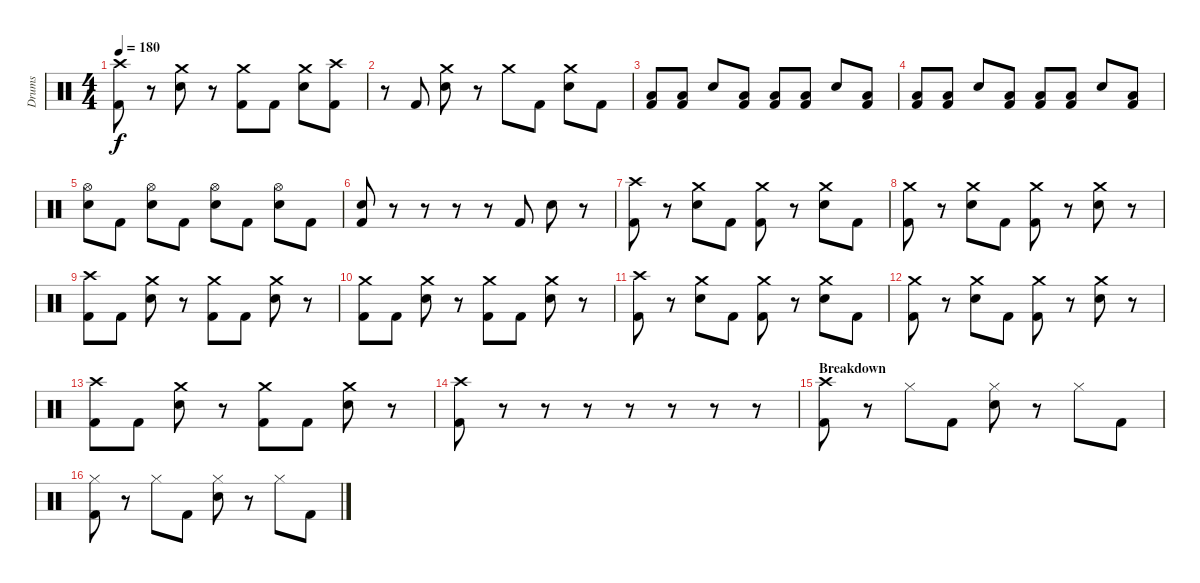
\track ("Drums" "Drums") {instrument percussion}
\staff {score}
\articulation defaults
\ts (4 4)
\tempo 180
\clef neutral
\ks c
("Crash high (hit)" "Kick (hit) 2").8{dy f} r.8 ("Crash medium (hit)" "Electric Snare (hit)").8 r.8 ("Crash medium (hit)" "Kick (hit) 2").8 "Kick (hit) 2".8 ("Crash medium (hit)" "Electric Snare (hit)").8 ("Crash high (hit)" "Kick (hit) 2").8 |
r.8 "Kick (hit) 2".8 ("Crash medium (hit)" "Electric Snare (hit)").8 r.8 "Crash medium (hit)".8 "Kick (hit) 2".8 ("Crash medium (hit)" "Electric Snare (hit)").8 "Kick (hit) 2".8 |
("Low Tom (hit)" "Kick (hit) 2").8 ("Low Tom (hit)" "Kick (hit) 2").8 "Electric Snare (hit)".8 ("Low Tom (hit)" "Kick (hit) 2").8 ("Low Tom (hit)" "Kick (hit) 2").8 ("Low Tom (hit)" "Kick (hit) 2").8 "Electric Snare (hit)".8 ("Low Tom (hit)" "Kick (hit) 2").8 |
("Low Tom (hit)" "Kick (hit) 2").8 ("Low Tom (hit)" "Kick (hit) 2").8 "Electric Snare (hit)".8 ("Low Tom (hit)" "Kick (hit) 2").8 ("Low Tom (hit)" "Kick (hit) 2").8 ("Low Tom (hit)" "Kick (hit) 2").8 "Electric Snare (hit)".8 ("Low Tom (hit)" "Kick (hit) 2").8 |
("Hi-Hat (open)" "Electric Snare (hit)").8 "Kick (hit) 2".8 ("Hi-Hat (open)" "Electric Snare (hit)").8 "Kick (hit) 2".8 ("Hi-Hat (open)" "Electric Snare (hit)").8 "Kick (hit) 2".8 ("Hi-Hat (open)" "Electric Snare (hit)").8 "Kick (hit) 2".8 |
("Electric Snare (hit)" "Kick (hit) 2").8 r.8 r.8 r.8 r.8 "Kick (hit) 2".8 "Electric Snare (hit)".8 r.8 |
("Crash high (hit)" "Kick (hit) 2").8 r.8 ("Crash medium (hit)" "Electric Snare (hit)").8 "Kick (hit) 2".8 ("Crash medium (hit)" "Kick (hit) 2").8 r.8 ("Crash medium (hit)" "Electric Snare (hit)").8 "Kick (hit) 2".8 |
("Crash medium (hit)" "Kick (hit) 2").8 r.8 ("Crash medium (hit)" "Electric Snare (hit)").8 "Kick (hit) 2".8 ("Crash medium (hit)" "Kick (hit) 2").8 r.8 ("Crash medium (hit)" "Electric Snare (hit)").8 r.8 |
("Crash high (hit)" "Kick (hit) 2").8 "Kick (hit) 2".8 ("Crash medium (hit)" "Electric Snare (hit)").8 r.8 ("Crash medium (hit)" "Kick (hit) 2").8 "Kick (hit) 2".8 ("Crash medium (hit)" "Electric Snare (hit)").8 r.8 |
("Crash medium (hit)" "Kick (hit) 2").8 "Kick (hit) 2".8 ("Crash medium (hit)" "Electric Snare (hit)").8 r.8 ("Crash medium (hit)" "Kick (hit) 2").8 "Kick (hit) 2".8 ("Crash medium (hit)" "Electric Snare (hit)").8 r.8 |
("Crash high (hit)" "Kick (hit) 2").8 r.8 ("Crash medium (hit)" "Electric Snare (hit)").8 "Kick (hit) 2".8 ("Crash medium (hit)" "Kick (hit) 2").8 r.8 ("Crash medium (hit)" "Electric Snare (hit)").8 "Kick (hit) 2".8 |
("Crash medium (hit)" "Kick (hit) 2").8 r.8 ("Crash medium (hit)" "Electric Snare (hit)").8 "Kick (hit) 2".8 ("Crash medium (hit)" "Kick (hit) 2").8 r.8 ("Crash medium (hit)" "Electric Snare (hit)").8 r.8 |
("Crash high (hit)" "Kick (hit) 2").8 "Kick (hit) 2".8 ("Crash medium (hit)" "Electric Snare (hit)").8 r.8 ("Crash medium (hit)" "Kick (hit) 2").8 "Kick (hit) 2".8 ("Crash medium (hit)" "Electric Snare (hit)").8 r.8 |
("Crash high (hit)" "Kick (hit) 2").8 r.8 r.8 r.8 r.8 r.8 r.8 r.8 |
\section ("" "Breakdown")
("Crash high (hit)" "Kick (hit) 2").8 r.8 "Hi-Hat (closed)".8 "Kick (hit) 2".8 ("Hi-Hat (closed)" "Electric Snare (hit)").8 r.8 "Hi-Hat (closed)".8 "Kick (hit) 2".8 |
("Hi-Hat (closed)" "Kick (hit) 2").8 r.8 "Hi-Hat (closed)".8 "Kick (hit) 2".8 ("Hi-Hat (closed)" "Electric Snare (hit)").8 r.8 "Hi-Hat (closed)".8 "Kick (hit) 2".8
